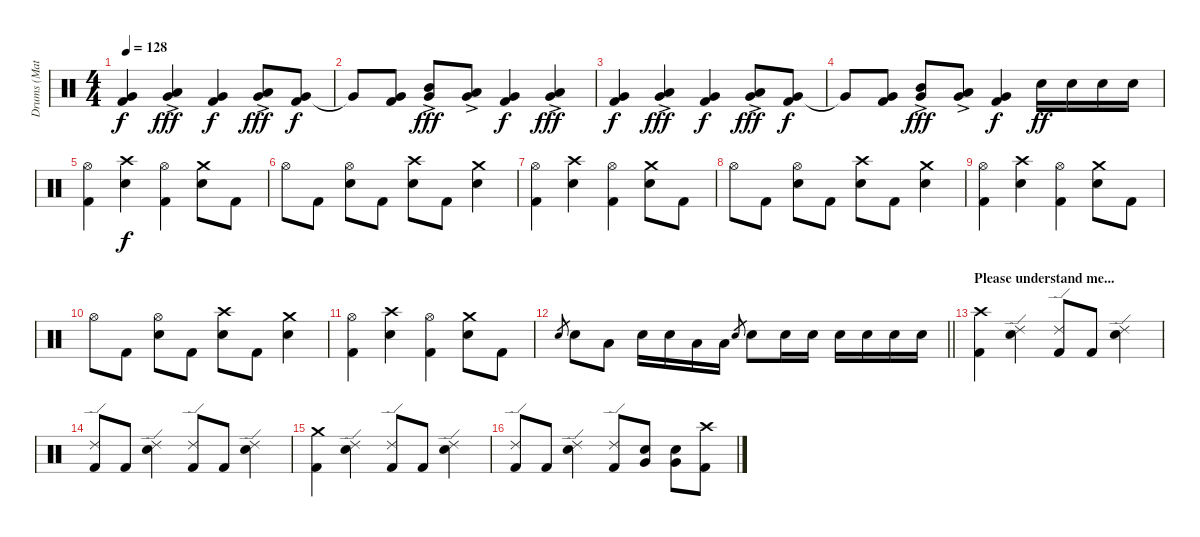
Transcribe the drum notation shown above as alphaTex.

\track ("Drums (Matt)" "Drums (Mat") {instrument percussion}
\staff {score}
\articulation defaults
\ts (4 4)
\tempo 128
\clef neutral
\ks c
("Very Low Tom (hit)" "Kick (hit) 2").4{dy f} ("Low Tom (hit)" "Very Low Tom (hit)"{ac}).4{dy fff} ("Very Low Tom (hit)" "Kick (hit) 2").4{dy f} ("Low Tom (hit)" "Very Low Tom (hit)"{ac}).8{dy fff} ("Very Low Tom (hit)" "Kick (hit) 2").8{dy f} |
"Very Low Tom (hit)"{t}.8 ("Very Low Tom (hit)" "Kick (hit) 2").8 ("Mid Tom (hit)" "Very Low Tom (hit)"{ac}).8{dy fff} ("Low Tom (hit)" "Very Low Tom (hit)"{ac}).8 ("Very Low Tom (hit)" "Kick (hit) 2").4{dy f} ("Low Tom (hit)" "Very Low Tom (hit)"{ac}).4{dy fff} |
("Very Low Tom (hit)" "Kick (hit) 2").4{dy f} ("Low Tom (hit)" "Very Low Tom (hit)"{ac}).4{dy fff} ("Very Low Tom (hit)" "Kick (hit) 2").4{dy f} ("Low Tom (hit)" "Very Low Tom (hit)"{ac}).8{dy fff} ("Very Low Tom (hit)" "Kick (hit) 2").8{dy f} |
"Very Low Tom (hit)"{t}.8 ("Very Low Tom (hit)" "Kick (hit) 2").8 ("Mid Tom (hit)" "Very Low Tom (hit)"{ac}).8{dy fff} ("Low Tom (hit)" "Very Low Tom (hit)"{ac}).8 ("Very Low Tom (hit)" "Kick (hit) 2").4{dy f} "Snare (hit) 2".16{dy ff} "Snare (hit) 2".16 "Snare (hit) 2".16 "Snare (hit) 2".16 |
("Hi-Hat (open)" "Kick (hit) 2").4 ("Crash high (hit)" "Snare (hit) 2").4{dy f} ("Hi-Hat (open)" "Kick (hit) 2").4 ("Crash medium (hit)" "Snare (hit) 2").8 "Kick (hit) 2".8 |
"Hi-Hat (open)".8 "Kick (hit) 2".8 ("Hi-Hat (open)" "Snare (hit) 2").8 "Kick (hit) 2".8 ("Crash high (hit)" "Snare (hit) 2").8 "Kick (hit) 2".8 ("Crash medium (hit)" "Snare (hit) 2").4 |
("Hi-Hat (open)" "Kick (hit) 2").4 ("Crash high (hit)" "Snare (hit) 2").4 ("Hi-Hat (open)" "Kick (hit) 2").4 ("Crash medium (hit)" "Snare (hit) 2").8 "Kick (hit) 2".8 |
"Hi-Hat (open)".8 "Kick (hit) 2".8 ("Hi-Hat (open)" "Snare (hit) 2").8 "Kick (hit) 2".8 ("Crash high (hit)" "Snare (hit) 2").8 "Kick (hit) 2".8 ("Crash medium (hit)" "Snare (hit) 2").4 |
("Hi-Hat (open)" "Kick (hit) 2").4 ("Crash high (hit)" "Snare (hit) 2").4 ("Hi-Hat (open)" "Kick (hit) 2").4 ("Crash medium (hit)" "Snare (hit) 2").8 "Kick (hit) 2".8 |
"Hi-Hat (open)".8 "Kick (hit) 2".8 ("Hi-Hat (open)" "Snare (hit) 2").8 "Kick (hit) 2".8 ("Crash high (hit)" "Snare (hit) 2").8 "Kick (hit) 2".8 ("Crash medium (hit)" "Snare (hit) 2").4 |
("Hi-Hat (open)" "Kick (hit) 2").4 ("Crash high (hit)" "Snare (hit) 2").4 ("Hi-Hat (open)" "Kick (hit) 2").4 ("Crash medium (hit)" "Snare (hit) 2").8 "Kick (hit) 2".8 |
\barLineRight lightlight "Snare (hit) 2".8{gr} "Snare (hit) 2".8 "Low Tom (hit)".8 "Snare (hit) 2".16 "Snare (hit) 2".16 "Low Tom (hit)".16 "Low Tom (hit)".16 "Snare (hit) 2".8{gr} "Snare (hit) 2".8 "Snare (hit) 2".16 "Snare (hit) 2".16 "Snare (hit) 2".16 "Snare (hit) 2".16 "Snare (hit) 2".16 "Snare (hit) 2".16
|
\section ("" "Please understand me...")
("Crash high (hit)" "Kick (hit) 2").4 ("Ride (edge) 2" "Snare (hit) 2").4 ("Ride (edge) 2" "Kick (hit) 2").8 "Kick (hit) 2".8 ("Ride (edge) 2" "Snare (hit) 2").4 |
("Ride (edge) 2" "Kick (hit) 2").8 "Kick (hit) 2".8 ("Ride (edge) 2" "Snare (hit) 2").4 ("Ride (edge) 2" "Kick (hit) 2").8 "Kick (hit) 2".8 ("Ride (edge) 2" "Snare (hit) 2").4 |
("Crash medium (hit)" "Kick (hit) 2").4 ("Ride (edge) 2" "Snare (hit) 2").4 ("Ride (edge) 2" "Kick (hit) 2").8 "Kick (hit) 2".8 ("Ride (edge) 2" "Snare (hit) 2").4 |
("Ride (edge) 2" "Kick (hit) 2").8 "Kick (hit) 2".8 ("Ride (edge) 2" "Snare (hit) 2").4 ("Ride (edge) 2" "Kick (hit) 2").8 ("Very Low Tom (hit)" "Snare (hit) 2").8 ("Very Low Tom (hit)" "Snare (hit) 2").8 ("Crash high (hit)" "Kick (hit) 2").8
